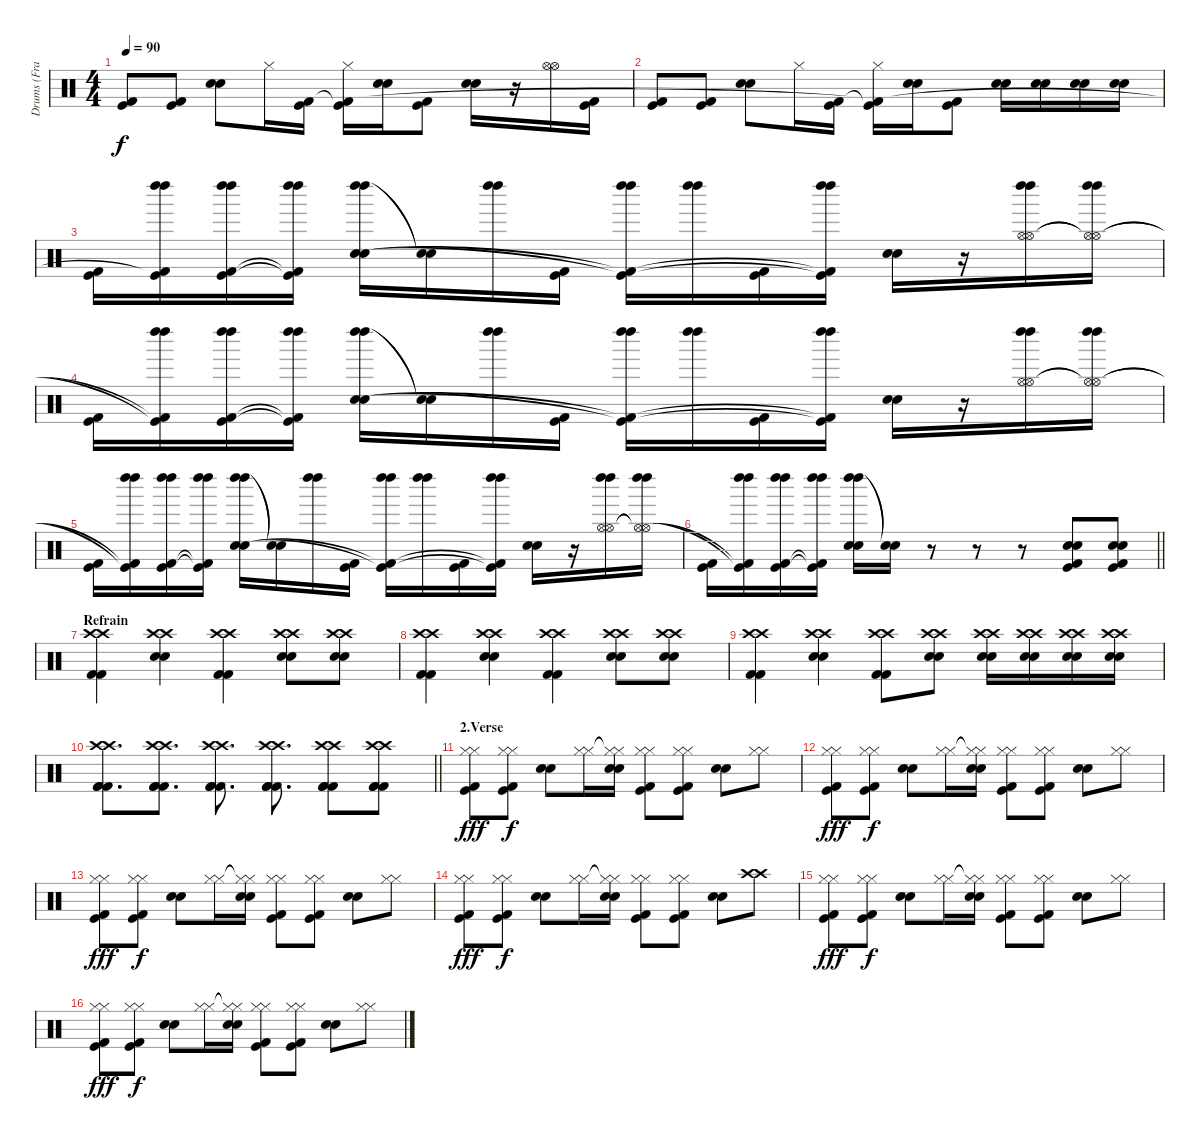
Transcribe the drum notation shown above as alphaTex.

\track ("Drums (Frank Ferrer)" "Drums (Fra") {instrument percussion}
\staff {score}
\articulation defaults
\ts (4 4)
\tempo 90
\clef neutral
\ks c
("Kick (hit)" "Kick (hit) 2").8{dy f} ("Kick (hit)" "Kick (hit) 2").8 ("Snare (hit) 2" "Snare (hit) 2").8 "Hi-Hat (closed)".16 ("Kick (hit)" "Kick (hit) 2").16 ("Hi-Hat (closed)" "Kick (hit)"{t} "Kick (hit) 2"{t}).16 ("Snare (hit) 2" "Snare (hit) 2").16 ("Kick (hit)" "Kick (hit) 2").8 ("Snare (hit) 2" "Snare (hit) 2").16 r.16 ("Hi-Hat (open)" "Hi-Hat (open)").16 ("Kick (hit)" "Kick (hit) 2").16 |
("Kick (hit)" "Kick (hit) 2").8 ("Kick (hit)" "Kick (hit) 2").8 ("Snare (hit) 2" "Snare (hit) 2").8 "Hi-Hat (closed)".16 ("Kick (hit)" "Kick (hit) 2").16 ("Hi-Hat (closed)" "Kick (hit)"{t} "Kick (hit) 2"{t}).16 ("Snare (hit) 2" "Snare (hit) 2").16 ("Kick (hit)" "Kick (hit) 2").8 ("Snare (hit) 2" "Snare (hit) 2").16 ("Snare (hit) 2" "Snare (hit) 2").16 ("Snare (hit) 2" "Snare (hit) 2").16 ("Snare (hit) 2" "Snare (hit) 2").16 |
("Kick (hit)" "Kick (hit) 2").16 ("Left Maraca (hit)" "Left Maraca (hit)" "Kick (hit)"{t} "Kick (hit) 2").16 ("Left Maraca (hit)" "Left Maraca (hit)" "Kick (hit)" "Kick (hit) 2").16 ("Left Maraca (hit)" "Left Maraca (hit)" "Kick (hit)"{t} "Kick (hit) 2"{t}).16 ("Left Maraca (hit)" "Left Maraca (hit)" "Snare (hit) 2" "Snare (hit) 2").16 ("Snare (hit) 2"{t} "Snare (hit) 2"{t}).16 ("Left Maraca (hit)" "Left Maraca (hit)").16 ("Kick (hit)" "Kick (hit) 2").16 ("Left Maraca (hit)" "Left Maraca (hit)" "Kick (hit)"{t} "Kick (hit) 2"{t}).16 ("Left Maraca (hit)" "Left Maraca (hit)").16 ("Kick (hit)" "Kick (hit) 2").16 ("Left Maraca (hit)" "Left Maraca (hit)" "Kick (hit)"{t} "Kick (hit) 2"{t}).16 ("Snare (hit) 2" "Snare (hit) 2").16 r.16 ("Left Maraca (hit)" "Left Maraca (hit)" "Hi-Hat (open)" "Hi-Hat (open)").16 ("Left Maraca (hit)" "Left Maraca (hit)" "Hi-Hat (open)"{t} "Hi-Hat (open)"{t}).16 |
("Kick (hit)" "Kick (hit) 2").16 ("Left Maraca (hit)" "Left Maraca (hit)" "Kick (hit)"{t} "Kick (hit) 2"{t}).16 ("Left Maraca (hit)" "Left Maraca (hit)" "Kick (hit)" "Kick (hit) 2").16 ("Left Maraca (hit)" "Left Maraca (hit)" "Kick (hit)"{t} "Kick (hit) 2"{t}).16 ("Left Maraca (hit)" "Left Maraca (hit)" "Snare (hit) 2" "Snare (hit) 2").16 ("Snare (hit) 2"{t} "Snare (hit) 2"{t}).16 ("Left Maraca (hit)" "Left Maraca (hit)").16 ("Kick (hit)" "Kick (hit) 2").16 ("Left Maraca (hit)" "Left Maraca (hit)" "Kick (hit)"{t} "Kick (hit) 2"{t}).16 ("Left Maraca (hit)" "Left Maraca (hit)").16 ("Kick (hit)" "Kick (hit) 2").16 ("Left Maraca (hit)" "Left Maraca (hit)" "Kick (hit)"{t} "Kick (hit) 2"{t}).16 ("Snare (hit) 2" "Snare (hit) 2").16 r.16 ("Left Maraca (hit)" "Left Maraca (hit)" "Hi-Hat (open)" "Hi-Hat (open)").16 ("Left Maraca (hit)" "Left Maraca (hit)" "Hi-Hat (open)"{t} "Hi-Hat (open)"{t}).16 |
("Kick (hit)" "Kick (hit) 2").16 ("Left Maraca (hit)" "Left Maraca (hit)" "Kick (hit)"{t} "Kick (hit) 2"{t}).16 ("Left Maraca (hit)" "Left Maraca (hit)" "Kick (hit)" "Kick (hit) 2").16 ("Left Maraca (hit)" "Left Maraca (hit)" "Kick (hit)"{t} "Kick (hit) 2"{t}).16 ("Left Maraca (hit)" "Left Maraca (hit)" "Snare (hit) 2" "Snare (hit) 2").16 ("Snare (hit) 2"{t} "Snare (hit) 2"{t}).16 ("Left Maraca (hit)" "Left Maraca (hit)").16 ("Kick (hit)" "Kick (hit) 2").16 ("Left Maraca (hit)" "Left Maraca (hit)" "Kick (hit)"{t} "Kick (hit) 2"{t}).16 ("Left Maraca (hit)" "Left Maraca (hit)").16 ("Kick (hit)" "Kick (hit) 2").16 ("Left Maraca (hit)" "Left Maraca (hit)" "Kick (hit)"{t} "Kick (hit) 2"{t}).16 ("Snare (hit) 2" "Snare (hit) 2").16 r.16 ("Left Maraca (hit)" "Left Maraca (hit)" "Hi-Hat (open)" "Hi-Hat (open)").16 ("Left Maraca (hit)" "Left Maraca (hit)" "Hi-Hat (open)"{t} "Hi-Hat (open)"{t}).16 |
\barLineRight lightlight
("Kick (hit)" "Kick (hit) 2").16 ("Left Maraca (hit)" "Left Maraca (hit)" "Kick (hit)"{t} "Kick (hit) 2"{t}).16 ("Left Maraca (hit)" "Left Maraca (hit)" "Kick (hit)" "Kick (hit) 2").16 ("Left Maraca (hit)" "Left Maraca (hit)" "Kick (hit)"{t} "Kick (hit) 2"{t}).16 ("Left Maraca (hit)" "Left Maraca (hit)" "Snare (hit) 2" "Snare (hit) 2").16 ("Snare (hit) 2"{t} "Snare (hit) 2"{t}).16 r.8 r.8 r.8 ("Snare (hit) 2" "Snare (hit) 2" "Kick (hit)" "Kick (hit) 2").8 ("Snare (hit) 2" "Snare (hit) 2" "Kick (hit)" "Kick (hit) 2").8 |
\section ("" "Refrain")
("Crash high (hit)" "Crash high (hit)" "Kick (hit) 2" "Kick (hit) 2").4{volume 14} ("Crash high (hit)" "Crash high (hit)" "Snare (hit) 2" "Snare (hit) 2").4 ("Crash high (hit)" "Crash high (hit)" "Kick (hit) 2" "Kick (hit) 2").4 ("Crash high (hit)" "Crash high (hit)" "Snare (hit) 2" "Snare (hit) 2").8 ("Crash high (hit)" "Crash high (hit)" "Snare (hit) 2" "Snare (hit) 2").8 |
("Crash high (hit)" "Crash high (hit)" "Kick (hit) 2" "Kick (hit) 2").4 ("Crash high (hit)" "Crash high (hit)" "Snare (hit) 2" "Snare (hit) 2").4 ("Crash high (hit)" "Crash high (hit)" "Kick (hit) 2" "Kick (hit) 2").4 ("Crash high (hit)" "Crash high (hit)" "Snare (hit) 2" "Snare (hit) 2").8 ("Crash high (hit)" "Crash high (hit)" "Snare (hit) 2" "Snare (hit) 2").8 |
("Crash high (hit)" "Crash high (hit)" "Kick (hit) 2" "Kick (hit) 2").4 ("Crash high (hit)" "Crash high (hit)" "Snare (hit) 2" "Snare (hit) 2").4 ("Crash high (hit)" "Crash high (hit)" "Kick (hit) 2" "Kick (hit) 2").8 ("Crash high (hit)" "Crash high (hit)" "Snare (hit) 2" "Snare (hit) 2").8 ("Crash high (hit)" "Crash high (hit)" "Snare (hit) 2" "Snare (hit) 2").16 ("Crash high (hit)" "Crash high (hit)" "Snare (hit) 2" "Snare (hit) 2").16 ("Crash high (hit)" "Crash high (hit)" "Snare (hit) 2" "Snare (hit) 2").16 ("Crash high (hit)" "Crash high (hit)" "Snare (hit) 2" "Snare (hit) 2").16 |
\barLineRight lightlight
("Crash high (hit)" "Crash high (hit)" "Kick (hit) 2" "Kick (hit) 2" "Kick (hit) 2").8{d} ("Crash high (hit)" "Crash high (hit)" "Kick (hit) 2" "Kick (hit) 2" "Kick (hit) 2").8{d} ("Crash high (hit)" "Crash high (hit)" "Kick (hit) 2" "Kick (hit) 2" "Kick (hit) 2").8{d} ("Crash high (hit)" "Crash high (hit)" "Kick (hit) 2" "Kick (hit) 2" "Kick (hit) 2").8{d} ("Crash high (hit)" "Crash high (hit)" "Kick (hit) 2" "Kick (hit) 2" "Kick (hit) 2").8 ("Crash high (hit)" "Crash high (hit)" "Kick (hit) 2" "Kick (hit) 2" "Kick (hit) 2").8 |
\section ("" "2.Verse")
("Hi-Hat (closed)" "Hi-Hat (closed)" "Kick (hit)" "Kick (hit) 2").8{dy fff volume 11} ("Hi-Hat (closed)" "Hi-Hat (closed)" "Kick (hit)" "Kick (hit) 2").8{dy f} ("Snare (hit) 2" "Snare (hit) 2").8 ("Hi-Hat (closed)" "Hi-Hat (closed)").16 ("Hi-Hat (closed)"{t} "Hi-Hat (closed)"{t} "Snare (hit) 2" "Snare (hit) 2").16 ("Hi-Hat (closed)" "Hi-Hat (closed)" "Kick (hit)" "Kick (hit) 2").8 ("Hi-Hat (closed)" "Hi-Hat (closed)" "Kick (hit)" "Kick (hit) 2").8 ("Snare (hit) 2" "Snare (hit) 2").8 ("Hi-Hat (closed)" "Hi-Hat (closed)").8 |
("Hi-Hat (closed)" "Hi-Hat (closed)" "Kick (hit)" "Kick (hit) 2").8{dy fff} ("Hi-Hat (closed)" "Hi-Hat (closed)" "Kick (hit)" "Kick (hit) 2").8{dy f} ("Snare (hit) 2" "Snare (hit) 2").8 ("Hi-Hat (closed)" "Hi-Hat (closed)").16 ("Hi-Hat (closed)"{t} "Hi-Hat (closed)"{t} "Snare (hit) 2" "Snare (hit) 2").16 ("Hi-Hat (closed)" "Hi-Hat (closed)" "Kick (hit)" "Kick (hit) 2").8 ("Hi-Hat (closed)" "Hi-Hat (closed)" "Kick (hit)" "Kick (hit) 2").8 ("Snare (hit) 2" "Snare (hit) 2").8 ("Hi-Hat (closed)" "Hi-Hat (closed)").8 |
("Hi-Hat (closed)" "Hi-Hat (closed)" "Kick (hit)" "Kick (hit) 2").8{dy fff} ("Hi-Hat (closed)" "Hi-Hat (closed)" "Kick (hit)" "Kick (hit) 2").8{dy f} ("Snare (hit) 2" "Snare (hit) 2").8 ("Hi-Hat (closed)" "Hi-Hat (closed)").16 ("Hi-Hat (closed)"{t} "Hi-Hat (closed)"{t} "Snare (hit) 2" "Snare (hit) 2").16 ("Hi-Hat (closed)" "Hi-Hat (closed)" "Kick (hit)" "Kick (hit) 2").8 ("Hi-Hat (closed)" "Hi-Hat (closed)" "Kick (hit)" "Kick (hit) 2").8 ("Snare (hit) 2" "Snare (hit) 2").8 ("Hi-Hat (closed)" "Hi-Hat (closed)").8 |
("Hi-Hat (closed)" "Hi-Hat (closed)" "Kick (hit)" "Kick (hit) 2").8{dy fff} ("Hi-Hat (closed)" "Hi-Hat (closed)" "Kick (hit)" "Kick (hit) 2").8{dy f} ("Snare (hit) 2" "Snare (hit) 2").8 ("Hi-Hat (closed)" "Hi-Hat (closed)").16 ("Hi-Hat (closed)"{t} "Hi-Hat (closed)"{t} "Snare (hit) 2" "Snare (hit) 2").16 ("Hi-Hat (closed)" "Hi-Hat (closed)" "Kick (hit)" "Kick (hit) 2").8 ("Hi-Hat (closed)" "Hi-Hat (closed)" "Kick (hit)" "Kick (hit) 2").8 ("Snare (hit) 2" "Snare (hit) 2").8 ("Crash high (hit)" "Crash high (hit)").8 |
("Hi-Hat (closed)" "Hi-Hat (closed)" "Kick (hit)" "Kick (hit) 2").8{dy fff} ("Hi-Hat (closed)" "Hi-Hat (closed)" "Kick (hit)" "Kick (hit) 2").8{dy f} ("Snare (hit) 2" "Snare (hit) 2").8 ("Hi-Hat (closed)" "Hi-Hat (closed)").16 ("Hi-Hat (closed)"{t} "Hi-Hat (closed)"{t} "Snare (hit) 2" "Snare (hit) 2").16 ("Hi-Hat (closed)" "Hi-Hat (closed)" "Kick (hit)" "Kick (hit) 2").8 ("Hi-Hat (closed)" "Hi-Hat (closed)" "Kick (hit)" "Kick (hit) 2").8 ("Snare (hit) 2" "Snare (hit) 2").8 ("Hi-Hat (closed)" "Hi-Hat (closed)").8 |
("Hi-Hat (closed)" "Hi-Hat (closed)" "Kick (hit)" "Kick (hit) 2").8{dy fff} ("Hi-Hat (closed)" "Hi-Hat (closed)" "Kick (hit)" "Kick (hit) 2").8{dy f} ("Snare (hit) 2" "Snare (hit) 2").8 ("Hi-Hat (closed)" "Hi-Hat (closed)").16 ("Hi-Hat (closed)"{t} "Hi-Hat (closed)"{t} "Snare (hit) 2" "Snare (hit) 2").16 ("Hi-Hat (closed)" "Hi-Hat (closed)" "Kick (hit)" "Kick (hit) 2").8 ("Hi-Hat (closed)" "Hi-Hat (closed)" "Kick (hit)" "Kick (hit) 2").8 ("Snare (hit) 2" "Snare (hit) 2").8 ("Hi-Hat (closed)" "Hi-Hat (closed)").8
